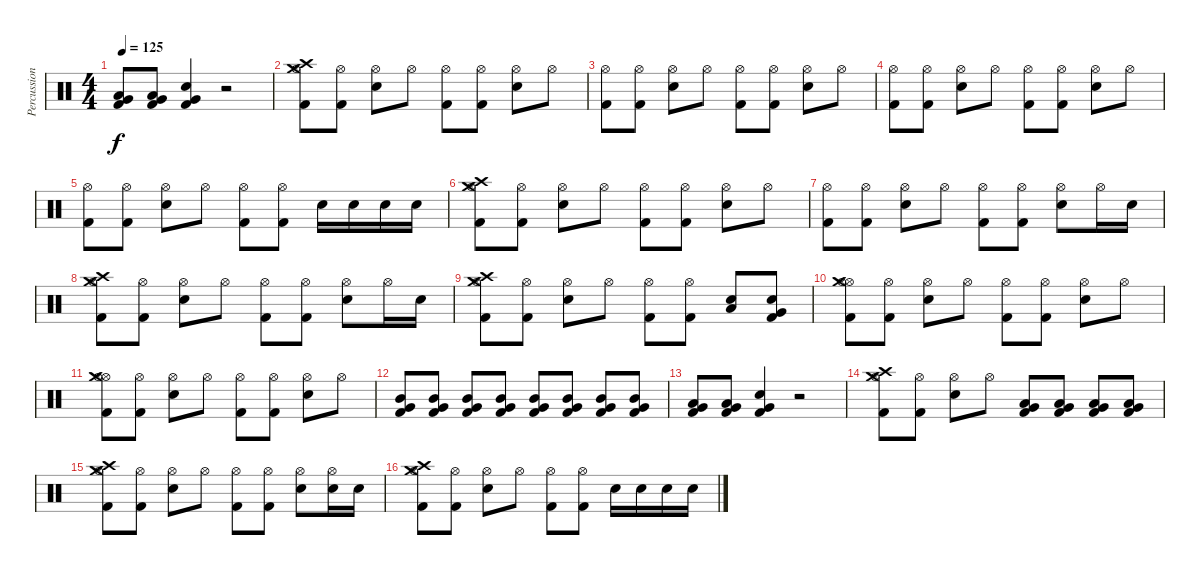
\track ("Percussions" "Percussion") {instrument percussion}
\staff {score}
\articulation defaults
\ts (4 4)
\tempo 125
\clef neutral
\ks c
("Very Low Tom (hit)" "Low Tom (hit)" "Kick (hit) 2").8{dy f} ("Very Low Tom (hit)" "Low Tom (hit)" "Kick (hit) 2").8 ("Very Low Tom (hit)" "Electric Snare (hit)" "Kick (hit) 2").4 r.2 |
("Hi-Hat (open)" "Crash high (hit)" "Crash medium (hit)" "Kick (hit) 2").8 ("Hi-Hat (open)" "Kick (hit) 2").8 ("Hi-Hat (open)" "Electric Snare (hit)").8 "Hi-Hat (open)".8 ("Hi-Hat (open)" "Kick (hit) 2").8 ("Hi-Hat (open)" "Kick (hit) 2").8 ("Hi-Hat (open)" "Electric Snare (hit)").8 "Hi-Hat (open)".8 |
("Hi-Hat (open)" "Kick (hit) 2").8 ("Hi-Hat (open)" "Kick (hit) 2").8 ("Hi-Hat (open)" "Electric Snare (hit)").8 "Hi-Hat (open)".8 ("Hi-Hat (open)" "Kick (hit) 2").8 ("Hi-Hat (open)" "Kick (hit) 2").8 ("Hi-Hat (open)" "Electric Snare (hit)").8 "Hi-Hat (open)".8 |
("Hi-Hat (open)" "Kick (hit) 2").8 ("Hi-Hat (open)" "Kick (hit) 2").8 ("Hi-Hat (open)" "Electric Snare (hit)").8 "Hi-Hat (open)".8 ("Hi-Hat (open)" "Kick (hit) 2").8 ("Hi-Hat (open)" "Kick (hit) 2").8 ("Hi-Hat (open)" "Electric Snare (hit)").8 "Hi-Hat (open)".8 |
("Hi-Hat (open)" "Kick (hit) 2").8 ("Hi-Hat (open)" "Kick (hit) 2").8 ("Hi-Hat (open)" "Electric Snare (hit)").8 "Hi-Hat (open)".8 ("Hi-Hat (open)" "Kick (hit) 2").8 ("Hi-Hat (open)" "Kick (hit) 2").8 "Electric Snare (hit)".16 "Electric Snare (hit)".16 "Electric Snare (hit)".16 "Electric Snare (hit)".16 |
("Hi-Hat (open)" "Crash high (hit)" "Crash medium (hit)" "Kick (hit) 2").8 ("Hi-Hat (open)" "Kick (hit) 2").8 ("Hi-Hat (open)" "Electric Snare (hit)").8 "Hi-Hat (open)".8 ("Hi-Hat (open)" "Kick (hit) 2").8 ("Hi-Hat (open)" "Kick (hit) 2").8 ("Hi-Hat (open)" "Electric Snare (hit)").8 "Hi-Hat (open)".8 |
("Hi-Hat (open)" "Kick (hit) 2").8 ("Hi-Hat (open)" "Kick (hit) 2").8 ("Hi-Hat (open)" "Electric Snare (hit)").8 "Hi-Hat (open)".8 ("Hi-Hat (open)" "Kick (hit) 2").8 ("Hi-Hat (open)" "Kick (hit) 2").8 ("Hi-Hat (open)" "Electric Snare (hit)").8 "Hi-Hat (open)".16 "Electric Snare (hit)".16 |
("Hi-Hat (open)" "Crash high (hit)" "Crash medium (hit)" "Kick (hit) 2").8 ("Hi-Hat (open)" "Kick (hit) 2").8 ("Hi-Hat (open)" "Electric Snare (hit)").8 "Hi-Hat (open)".8 ("Hi-Hat (open)" "Kick (hit) 2").8 ("Hi-Hat (open)" "Kick (hit) 2").8 ("Hi-Hat (open)" "Electric Snare (hit)").8 "Hi-Hat (open)".16 "Electric Snare (hit)".16 |
("Hi-Hat (open)" "Crash high (hit)" "Crash medium (hit)" "Kick (hit) 2").8 ("Hi-Hat (open)" "Kick (hit) 2").8 ("Hi-Hat (open)" "Electric Snare (hit)").8 "Hi-Hat (open)".8 ("Hi-Hat (open)" "Kick (hit) 2").8 ("Hi-Hat (open)" "Kick (hit) 2").8 ("Low Tom (hit)" "Electric Snare (hit)").8 ("Very Low Tom (hit)" "Electric Snare (hit)" "Kick (hit) 2").8 |
("Hi-Hat (open)" "Hi-Hat (open)" "Crash medium (hit)" "Kick (hit) 2").8 ("Hi-Hat (open)" "Kick (hit) 2").8 ("Hi-Hat (open)" "Electric Snare (hit)").8 "Hi-Hat (open)".8 ("Hi-Hat (open)" "Kick (hit) 2").8 ("Hi-Hat (open)" "Kick (hit) 2").8 ("Hi-Hat (open)" "Electric Snare (hit)").8 "Hi-Hat (open)".8 |
("Hi-Hat (open)" "Hi-Hat (open)" "Crash medium (hit)" "Kick (hit) 2").8 ("Hi-Hat (open)" "Kick (hit) 2").8 ("Hi-Hat (open)" "Electric Snare (hit)").8 "Hi-Hat (open)".8 ("Hi-Hat (open)" "Kick (hit) 2").8 ("Hi-Hat (open)" "Kick (hit) 2").8 ("Hi-Hat (open)" "Electric Snare (hit)").8 "Hi-Hat (open)".8 |
("Very Low Tom (hit)" "Mid Tom (hit)" "Kick (hit) 2").8 ("Very Low Tom (hit)" "Mid Tom (hit)" "Kick (hit) 2").8 ("Very Low Tom (hit)" "Mid Tom (hit)" "Kick (hit) 2").8 ("Very Low Tom (hit)" "Mid Tom (hit)" "Kick (hit) 2").8 ("Very Low Tom (hit)" "Mid Tom (hit)" "Kick (hit) 2").8 ("Very Low Tom (hit)" "Mid Tom (hit)" "Kick (hit) 2").8 ("Very Low Tom (hit)" "Mid Tom (hit)" "Kick (hit) 2").8 ("Very Low Tom (hit)" "Mid Tom (hit)" "Kick (hit) 2").8 |
("Very Low Tom (hit)" "Low Tom (hit)" "Kick (hit) 2").8 ("Very Low Tom (hit)" "Low Tom (hit)" "Kick (hit) 2").8 ("Very Low Tom (hit)" "Electric Snare (hit)" "Kick (hit) 2").4 r.2 |
("Hi-Hat (open)" "Crash high (hit)" "Crash medium (hit)" "Kick (hit) 2").8 ("Hi-Hat (open)" "Kick (hit) 2").8 ("Hi-Hat (open)" "Electric Snare (hit)").8 "Hi-Hat (open)".8 ("Low Tom (hit)" "Very Low Tom (hit)" "Kick (hit) 2").8 ("Low Tom (hit)" "Very Low Tom (hit)" "Kick (hit) 2").8 ("Low Tom (hit)" "Very Low Tom (hit)" "Kick (hit) 2").8 ("Low Tom (hit)" "Very Low Tom (hit)" "Kick (hit) 2").8 |
("Hi-Hat (open)" "Crash high (hit)" "Crash medium (hit)" "Kick (hit) 2").8 ("Hi-Hat (open)" "Kick (hit) 2").8 ("Hi-Hat (open)" "Electric Snare (hit)").8 "Hi-Hat (open)".8 ("Hi-Hat (open)" "Kick (hit) 2").8 ("Hi-Hat (open)" "Kick (hit) 2").8 ("Hi-Hat (open)" "Electric Snare (hit)").8 ("Hi-Hat (open)" "Electric Snare (hit)").16 "Electric Snare (hit)".16 |
("Hi-Hat (open)" "Crash high (hit)" "Crash medium (hit)" "Kick (hit) 2").8 ("Hi-Hat (open)" "Kick (hit) 2").8 ("Hi-Hat (open)" "Electric Snare (hit)").8 "Hi-Hat (open)".8 ("Hi-Hat (open)" "Kick (hit) 2").8 ("Hi-Hat (open)" "Kick (hit) 2").8 "Electric Snare (hit)".16 "Electric Snare (hit)".16 "Electric Snare (hit)".16 "Electric Snare (hit)".16
